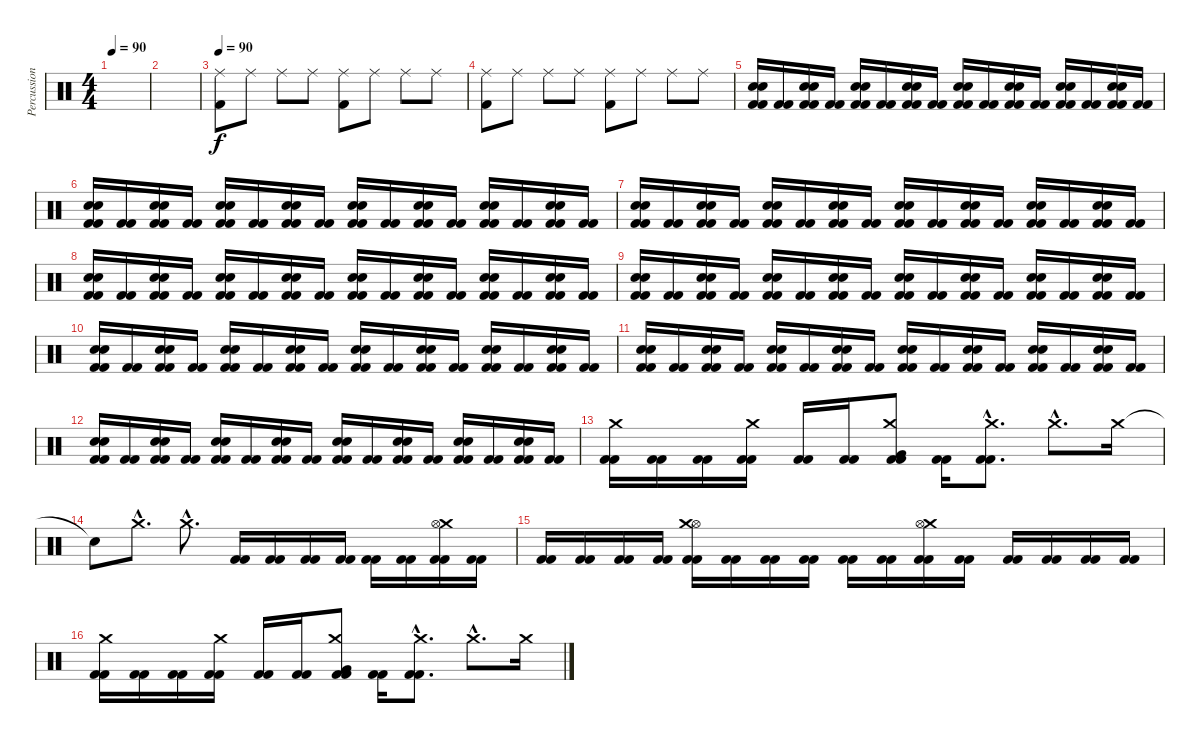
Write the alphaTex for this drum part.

\track ("Percussion" "Percussion") {instrument percussion}
\staff {score}
\articulation defaults
\ts (4 4)
\tempo 90
\clef neutral
\ks c
|
|
\tempo 90
("Kick (hit) 2" "Ride (middle)").8 "Ride (middle)".8 "Ride (middle)".8 "Ride (middle)".8 ("Kick (hit) 2" "Ride (middle)").8 "Ride (middle)".8 "Ride (middle)".8 "Ride (middle)".8 |
("Kick (hit) 2" "Ride (middle)").8 "Ride (middle)".8 "Ride (middle)".8 "Ride (middle)".8 ("Kick (hit) 2" "Ride (middle)").8 "Ride (middle)".8 "Ride (middle)".8 "Ride (middle)".8 |
("Kick (hit) 2" "Kick (hit) 2" "Metronome (bell)" "Metronome (bell)").16 ("Kick (hit) 2" "Kick (hit) 2").16 ("Kick (hit) 2" "Kick (hit) 2" "Metronome (bell)" "Metronome (bell)").16 ("Kick (hit) 2" "Kick (hit) 2").16 ("Kick (hit) 2" "Kick (hit) 2" "Metronome (bell)" "Metronome (bell)").16 ("Kick (hit) 2" "Kick (hit) 2").16 ("Kick (hit) 2" "Kick (hit) 2" "Metronome (bell)" "Metronome (bell)").16 ("Kick (hit) 2" "Kick (hit) 2").16 ("Kick (hit) 2" "Kick (hit) 2" "Metronome (bell)" "Metronome (bell)").16 ("Kick (hit) 2" "Kick (hit) 2").16 ("Kick (hit) 2" "Kick (hit) 2" "Metronome (bell)" "Metronome (bell)").16 ("Kick (hit) 2" "Kick (hit) 2").16 ("Kick (hit) 2" "Kick (hit) 2" "Metronome (bell)" "Metronome (bell)").16 ("Kick (hit) 2" "Kick (hit) 2").16 ("Kick (hit) 2" "Kick (hit) 2" "Metronome (bell)" "Metronome (bell)").16 ("Kick (hit) 2" "Kick (hit) 2").16 |
("Kick (hit) 2" "Kick (hit) 2" "Metronome (bell)" "Metronome (bell)").16 ("Kick (hit) 2" "Kick (hit) 2").16 ("Kick (hit) 2" "Kick (hit) 2" "Metronome (bell)" "Metronome (bell)").16 ("Kick (hit) 2" "Kick (hit) 2").16 ("Kick (hit) 2" "Kick (hit) 2" "Metronome (bell)" "Metronome (bell)").16 ("Kick (hit) 2" "Kick (hit) 2").16 ("Kick (hit) 2" "Kick (hit) 2" "Metronome (bell)" "Metronome (bell)").16 ("Kick (hit) 2" "Kick (hit) 2").16 ("Kick (hit) 2" "Kick (hit) 2" "Metronome (bell)" "Metronome (bell)").16 ("Kick (hit) 2" "Kick (hit) 2").16 ("Kick (hit) 2" "Kick (hit) 2" "Metronome (bell)" "Metronome (bell)").16 ("Kick (hit) 2" "Kick (hit) 2").16 ("Kick (hit) 2" "Kick (hit) 2" "Metronome (bell)" "Metronome (bell)").16 ("Kick (hit) 2" "Kick (hit) 2").16 ("Kick (hit) 2" "Kick (hit) 2" "Metronome (bell)" "Metronome (bell)").16 ("Kick (hit) 2" "Kick (hit) 2").16 |
("Kick (hit) 2" "Kick (hit) 2" "Metronome (bell)" "Metronome (bell)").16 ("Kick (hit) 2" "Kick (hit) 2").16 ("Kick (hit) 2" "Kick (hit) 2" "Metronome (bell)" "Metronome (bell)").16 ("Kick (hit) 2" "Kick (hit) 2").16 ("Kick (hit) 2" "Kick (hit) 2" "Metronome (bell)" "Metronome (bell)").16 ("Kick (hit) 2" "Kick (hit) 2").16 ("Kick (hit) 2" "Kick (hit) 2" "Metronome (bell)" "Metronome (bell)").16 ("Kick (hit) 2" "Kick (hit) 2").16 ("Kick (hit) 2" "Kick (hit) 2" "Metronome (bell)" "Metronome (bell)").16 ("Kick (hit) 2" "Kick (hit) 2").16 ("Kick (hit) 2" "Kick (hit) 2" "Metronome (bell)" "Metronome (bell)").16 ("Kick (hit) 2" "Kick (hit) 2").16 ("Kick (hit) 2" "Kick (hit) 2" "Metronome (bell)" "Metronome (bell)").16 ("Kick (hit) 2" "Kick (hit) 2").16 ("Kick (hit) 2" "Kick (hit) 2" "Metronome (bell)" "Metronome (bell)").16 ("Kick (hit) 2" "Kick (hit) 2").16 |
("Kick (hit) 2" "Kick (hit) 2" "Metronome (bell)" "Metronome (bell)").16 ("Kick (hit) 2" "Kick (hit) 2").16 ("Kick (hit) 2" "Kick (hit) 2" "Metronome (bell)" "Metronome (bell)").16 ("Kick (hit) 2" "Kick (hit) 2").16 ("Kick (hit) 2" "Kick (hit) 2" "Metronome (bell)" "Metronome (bell)").16 ("Kick (hit) 2" "Kick (hit) 2").16 ("Kick (hit) 2" "Kick (hit) 2" "Metronome (bell)" "Metronome (bell)").16 ("Kick (hit) 2" "Kick (hit) 2").16 ("Kick (hit) 2" "Kick (hit) 2" "Metronome (bell)" "Metronome (bell)").16 ("Kick (hit) 2" "Kick (hit) 2").16 ("Kick (hit) 2" "Kick (hit) 2" "Metronome (bell)" "Metronome (bell)").16 ("Kick (hit) 2" "Kick (hit) 2").16 ("Kick (hit) 2" "Kick (hit) 2" "Metronome (bell)" "Metronome (bell)").16 ("Kick (hit) 2" "Kick (hit) 2").16 ("Kick (hit) 2" "Kick (hit) 2" "Metronome (bell)" "Metronome (bell)").16 ("Kick (hit) 2" "Kick (hit) 2").16 |
("Kick (hit) 2" "Kick (hit) 2" "Metronome (bell)" "Metronome (bell)").16 ("Kick (hit) 2" "Kick (hit) 2").16 ("Kick (hit) 2" "Kick (hit) 2" "Metronome (bell)" "Metronome (bell)").16 ("Kick (hit) 2" "Kick (hit) 2").16 ("Kick (hit) 2" "Kick (hit) 2" "Metronome (bell)" "Metronome (bell)").16 ("Kick (hit) 2" "Kick (hit) 2").16 ("Kick (hit) 2" "Kick (hit) 2" "Metronome (bell)" "Metronome (bell)").16 ("Kick (hit) 2" "Kick (hit) 2").16 ("Kick (hit) 2" "Kick (hit) 2" "Metronome (bell)" "Metronome (bell)").16 ("Kick (hit) 2" "Kick (hit) 2").16 ("Kick (hit) 2" "Kick (hit) 2" "Metronome (bell)" "Metronome (bell)").16 ("Kick (hit) 2" "Kick (hit) 2").16 ("Kick (hit) 2" "Kick (hit) 2" "Metronome (bell)" "Metronome (bell)").16 ("Kick (hit) 2" "Kick (hit) 2").16 ("Kick (hit) 2" "Kick (hit) 2" "Metronome (bell)" "Metronome (bell)").16 ("Kick (hit) 2" "Kick (hit) 2").16 |
("Kick (hit) 2" "Kick (hit) 2" "Metronome (bell)" "Metronome (bell)").16 ("Kick (hit) 2" "Kick (hit) 2").16 ("Kick (hit) 2" "Kick (hit) 2" "Metronome (bell)" "Metronome (bell)").16 ("Kick (hit) 2" "Kick (hit) 2").16 ("Kick (hit) 2" "Kick (hit) 2" "Metronome (bell)" "Metronome (bell)").16 ("Kick (hit) 2" "Kick (hit) 2").16 ("Kick (hit) 2" "Kick (hit) 2" "Metronome (bell)" "Metronome (bell)").16 ("Kick (hit) 2" "Kick (hit) 2").16 ("Kick (hit) 2" "Kick (hit) 2" "Metronome (bell)" "Metronome (bell)").16 ("Kick (hit) 2" "Kick (hit) 2").16 ("Kick (hit) 2" "Kick (hit) 2" "Metronome (bell)" "Metronome (bell)").16 ("Kick (hit) 2" "Kick (hit) 2").16 ("Kick (hit) 2" "Kick (hit) 2" "Metronome (bell)" "Metronome (bell)").16 ("Kick (hit) 2" "Kick (hit) 2").16 ("Kick (hit) 2" "Kick (hit) 2" "Metronome (bell)" "Metronome (bell)").16 ("Kick (hit) 2" "Kick (hit) 2").16 |
("Kick (hit) 2" "Kick (hit) 2" "Metronome (bell)" "Metronome (bell)").16 ("Kick (hit) 2" "Kick (hit) 2").16 ("Kick (hit) 2" "Kick (hit) 2" "Metronome (bell)" "Metronome (bell)").16 ("Kick (hit) 2" "Kick (hit) 2").16 ("Kick (hit) 2" "Kick (hit) 2" "Metronome (bell)" "Metronome (bell)").16 ("Kick (hit) 2" "Kick (hit) 2").16 ("Kick (hit) 2" "Kick (hit) 2" "Metronome (bell)" "Metronome (bell)").16 ("Kick (hit) 2" "Kick (hit) 2").16 ("Kick (hit) 2" "Kick (hit) 2" "Metronome (bell)" "Metronome (bell)").16 ("Kick (hit) 2" "Kick (hit) 2").16 ("Kick (hit) 2" "Kick (hit) 2" "Metronome (bell)" "Metronome (bell)").16 ("Kick (hit) 2" "Kick (hit) 2").16 ("Kick (hit) 2" "Kick (hit) 2" "Metronome (bell)" "Metronome (bell)").16 ("Kick (hit) 2" "Kick (hit) 2").16 ("Kick (hit) 2" "Kick (hit) 2" "Metronome (bell)" "Metronome (bell)").16 ("Kick (hit) 2" "Kick (hit) 2").16 |
("Kick (hit) 2" "Kick (hit) 2" "Metronome (bell)" "Metronome (bell)").16 ("Kick (hit) 2" "Kick (hit) 2").16 ("Kick (hit) 2" "Kick (hit) 2" "Metronome (bell)" "Metronome (bell)").16 ("Kick (hit) 2" "Kick (hit) 2").16 ("Kick (hit) 2" "Kick (hit) 2" "Metronome (bell)" "Metronome (bell)").16 ("Kick (hit) 2" "Kick (hit) 2").16 ("Kick (hit) 2" "Kick (hit) 2" "Metronome (bell)" "Metronome (bell)").16 ("Kick (hit) 2" "Kick (hit) 2").16 ("Kick (hit) 2" "Kick (hit) 2" "Metronome (bell)" "Metronome (bell)").16 ("Kick (hit) 2" "Kick (hit) 2").16 ("Kick (hit) 2" "Kick (hit) 2" "Metronome (bell)" "Metronome (bell)").16 ("Kick (hit) 2" "Kick (hit) 2").16 ("Kick (hit) 2" "Kick (hit) 2" "Metronome (bell)" "Metronome (bell)").16 ("Kick (hit) 2" "Kick (hit) 2").16 ("Kick (hit) 2" "Kick (hit) 2" "Metronome (bell)" "Metronome (bell)").16 ("Kick (hit) 2" "Kick (hit) 2").16 |
("Kick (hit) 2" "Kick (hit) 2" "Crash medium (hit)").16 ("Kick (hit) 2" "Kick (hit) 2").16 ("Kick (hit) 2" "Kick (hit) 2").16 ("Kick (hit) 2" "Kick (hit) 2" "Crash medium (hit)").16 ("Kick (hit) 2" "Kick (hit) 2").16 ("Kick (hit) 2" "Kick (hit) 2").16 ("Kick (hit) 2" "Kick (hit) 2" "Very Low Tom (hit)" "Crash medium (hit)").8 ("Kick (hit) 2" "Kick (hit) 2").16 ("Kick (hit) 2"{hac} "Kick (hit) 2"{hac} "Crash medium (hit)"{hac}).8{d} "Crash medium (hit)"{hac}.8{d} "Crash medium (hit)".16 |
"Snare (hit)"{t}.8 "Crash medium (hit)"{hac}.8{d} "Crash medium (hit)"{hac}.8{d} ("Kick (hit) 2" "Kick (hit) 2").16 ("Kick (hit) 2" "Kick (hit) 2").16 ("Kick (hit) 2" "Kick (hit) 2").16 ("Kick (hit) 2" "Kick (hit) 2").16 ("Kick (hit) 2" "Kick (hit) 2").16 ("Kick (hit) 2" "Kick (hit) 2").16 ("Kick (hit) 2" "Kick (hit) 2" "Crash medium (hit)" "Hi-Hat (open)").16 ("Kick (hit) 2" "Kick (hit) 2").16 |
("Kick (hit) 2" "Kick (hit) 2").16 ("Kick (hit) 2" "Kick (hit) 2").16 ("Kick (hit) 2" "Kick (hit) 2").16 ("Kick (hit) 2" "Kick (hit) 2").16 ("Kick (hit) 2" "Kick (hit) 2" "Hi-Hat (open)" "Crash medium (hit)").16 ("Kick (hit) 2" "Kick (hit) 2").16 ("Kick (hit) 2" "Kick (hit) 2").16 ("Kick (hit) 2" "Kick (hit) 2").16 ("Kick (hit) 2" "Kick (hit) 2").16 ("Kick (hit) 2" "Kick (hit) 2").16 ("Kick (hit) 2" "Kick (hit) 2" "Crash medium (hit)" "Hi-Hat (open)").16 ("Kick (hit) 2" "Kick (hit) 2").16 ("Kick (hit) 2" "Kick (hit) 2").16 ("Kick (hit) 2" "Kick (hit) 2").16 ("Kick (hit) 2" "Kick (hit) 2").16 ("Kick (hit) 2" "Kick (hit) 2").16 |
("Kick (hit) 2" "Kick (hit) 2" "Crash medium (hit)").16 ("Kick (hit) 2" "Kick (hit) 2").16 ("Kick (hit) 2" "Kick (hit) 2").16 ("Kick (hit) 2" "Kick (hit) 2" "Crash medium (hit)").16 ("Kick (hit) 2" "Kick (hit) 2").16 ("Kick (hit) 2" "Kick (hit) 2").16 ("Kick (hit) 2" "Kick (hit) 2" "Very Low Tom (hit)" "Crash medium (hit)").8 ("Kick (hit) 2" "Kick (hit) 2").16 ("Kick (hit) 2"{hac} "Kick (hit) 2"{hac} "Crash medium (hit)"{hac}).8{d} "Crash medium (hit)"{hac}.8{d} "Crash medium (hit)".16
